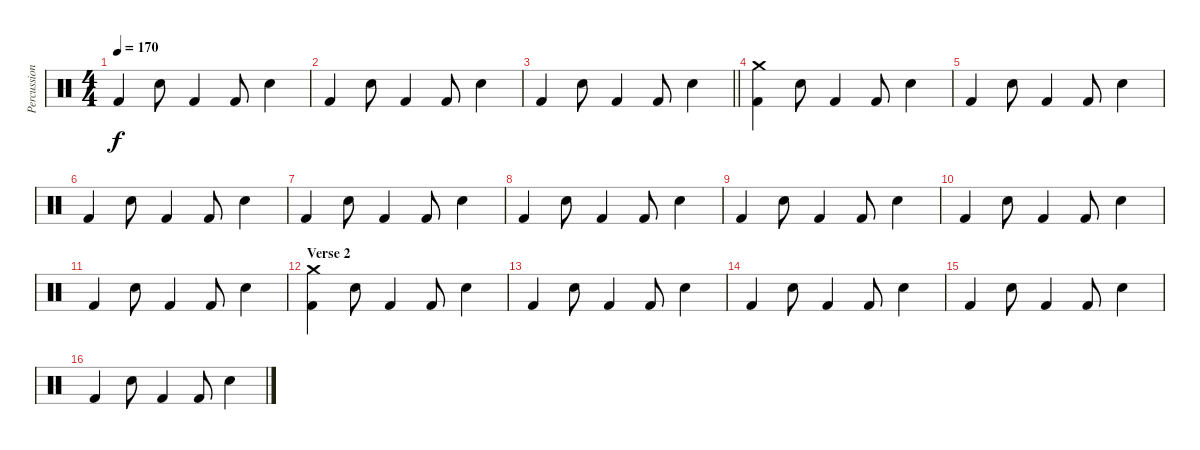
\track ("Percussions" "Percussion") {instrument percussion}
\staff {score}
\articulation defaults
\ts (4 4)
\tempo 170
\clef neutral
\ks c "Kick (hit) 2".4{dy f} "Electric Snare (hit)".8 "Kick (hit) 2".4 "Kick (hit) 2".8 "Electric Snare (hit)".4
|
"Kick (hit) 2".4 "Electric Snare (hit)".8 "Kick (hit) 2".4 "Kick (hit) 2".8 "Electric Snare (hit)".4 |
\barLineRight lightlight "Kick (hit) 2".4 "Electric Snare (hit)".8 "Kick (hit) 2".4 "Kick (hit) 2".8 "Electric Snare (hit)".4
|
("Crash medium (hit)" "Kick (hit) 2").4 "Electric Snare (hit)".8 "Kick (hit) 2".4 "Kick (hit) 2".8 "Electric Snare (hit)".4 |
"Kick (hit) 2".4 "Electric Snare (hit)".8 "Kick (hit) 2".4 "Kick (hit) 2".8 "Electric Snare (hit)".4 |
"Kick (hit) 2".4 "Electric Snare (hit)".8 "Kick (hit) 2".4 "Kick (hit) 2".8 "Electric Snare (hit)".4 |
"Kick (hit) 2".4 "Electric Snare (hit)".8 "Kick (hit) 2".4 "Kick (hit) 2".8 "Electric Snare (hit)".4 |
"Kick (hit) 2".4 "Electric Snare (hit)".8 "Kick (hit) 2".4 "Kick (hit) 2".8 "Electric Snare (hit)".4 |
"Kick (hit) 2".4 "Electric Snare (hit)".8 "Kick (hit) 2".4 "Kick (hit) 2".8 "Electric Snare (hit)".4 |
"Kick (hit) 2".4 "Electric Snare (hit)".8 "Kick (hit) 2".4 "Kick (hit) 2".8 "Electric Snare (hit)".4 |
"Kick (hit) 2".4 "Electric Snare (hit)".8 "Kick (hit) 2".4 "Kick (hit) 2".8 "Electric Snare (hit)".4 |
\section ("" "Verse 2")
("Crash medium (hit)" "Kick (hit) 2").4 "Electric Snare (hit)".8 "Kick (hit) 2".4 "Kick (hit) 2".8 "Electric Snare (hit)".4 |
"Kick (hit) 2".4 "Electric Snare (hit)".8 "Kick (hit) 2".4 "Kick (hit) 2".8 "Electric Snare (hit)".4 |
"Kick (hit) 2".4 "Electric Snare (hit)".8 "Kick (hit) 2".4 "Kick (hit) 2".8 "Electric Snare (hit)".4 |
"Kick (hit) 2".4 "Electric Snare (hit)".8 "Kick (hit) 2".4 "Kick (hit) 2".8 "Electric Snare (hit)".4 |
"Kick (hit) 2".4 "Electric Snare (hit)".8 "Kick (hit) 2".4 "Kick (hit) 2".8 "Electric Snare (hit)".4
